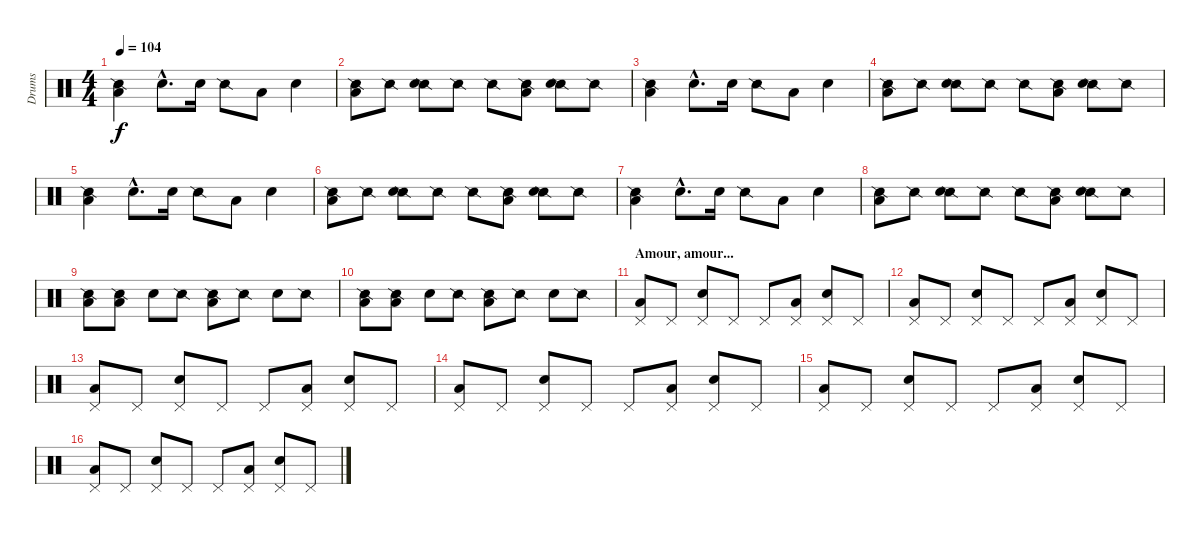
\track ("Drums" "Drums") {instrument percussion}
\staff {score}
\articulation defaults
\ts (4 4)
\tempo 104
\clef neutral
\ks c
("Snare (side stick) 2" "Low Floor Tom (hit)").4{dy f} "Snare (hit) 2"{hac}.8{d} "Snare (hit) 2".16 "Snare (side stick) 2".8 "Low Floor Tom (hit)".8 "Snare (hit) 2".4 |
("Snare (side stick) 2" "Low Floor Tom (hit)").8 "Snare (side stick) 2".8 ("Snare (side stick) 2" "Snare (hit) 2").8 "Snare (side stick) 2".8 "Snare (side stick) 2".8 ("Snare (side stick) 2" "Low Floor Tom (hit)").8 ("Snare (side stick) 2" "Snare (hit) 2").8 "Snare (side stick) 2".8 |
("Snare (side stick) 2" "Low Floor Tom (hit)").4 "Snare (hit) 2"{hac}.8{d} "Snare (hit) 2".16 "Snare (side stick) 2".8 "Low Floor Tom (hit)".8 "Snare (hit) 2".4 |
("Snare (side stick) 2" "Low Floor Tom (hit)").8 "Snare (side stick) 2".8 ("Snare (side stick) 2" "Snare (hit) 2").8 "Snare (side stick) 2".8 "Snare (side stick) 2".8 ("Snare (side stick) 2" "Low Floor Tom (hit)").8 ("Snare (side stick) 2" "Snare (hit) 2").8 "Snare (side stick) 2".8 |
("Snare (side stick) 2" "Low Floor Tom (hit)").4 "Snare (hit) 2"{hac}.8{d} "Snare (hit) 2".16 "Snare (side stick) 2".8 "Low Floor Tom (hit)".8 "Snare (hit) 2".4 |
("Snare (side stick) 2" "Low Floor Tom (hit)").8 "Snare (side stick) 2".8 ("Snare (side stick) 2" "Snare (hit) 2").8 "Snare (side stick) 2".8 "Snare (side stick) 2".8 ("Snare (side stick) 2" "Low Floor Tom (hit)").8 ("Snare (side stick) 2" "Snare (hit) 2").8 "Snare (side stick) 2".8 |
("Snare (side stick) 2" "Low Floor Tom (hit)").4 "Snare (hit) 2"{hac}.8{d} "Snare (hit) 2".16 "Snare (side stick) 2".8 "Low Floor Tom (hit)".8 "Snare (hit) 2".4 |
("Snare (side stick) 2" "Low Floor Tom (hit)").8 "Snare (side stick) 2".8 ("Snare (side stick) 2" "Snare (hit) 2").8 "Snare (side stick) 2".8 "Snare (side stick) 2".8 ("Snare (side stick) 2" "Low Floor Tom (hit)").8 ("Snare (side stick) 2" "Snare (hit) 2").8 "Snare (side stick) 2".8 |
("Snare (side stick) 2" "Low Floor Tom (hit)").8 ("Snare (side stick) 2" "Low Floor Tom (hit)").8 "Snare (hit) 2".8 "Snare (side stick) 2".8 ("Snare (side stick) 2" "Low Floor Tom (hit)").8 "Snare (side stick) 2".8 "Snare (hit) 2".8 "Snare (side stick) 2".8 |
("Snare (side stick) 2" "Low Floor Tom (hit)").8 ("Snare (side stick) 2" "Low Floor Tom (hit)").8 "Snare (hit) 2".8 "Snare (side stick) 2".8 ("Snare (side stick) 2" "Low Floor Tom (hit)").8 "Snare (side stick) 2".8 "Snare (hit) 2".8 "Snare (side stick) 2".8 |
\section ("" "Amour, amour...")
("Pedal Hi-Hat (hit)" "Low Floor Tom (hit)").8 "Pedal Hi-Hat (hit)".8 ("Pedal Hi-Hat (hit)" "Snare (hit) 2").8 "Pedal Hi-Hat (hit)".8 "Pedal Hi-Hat (hit)".8 ("Pedal Hi-Hat (hit)" "Low Floor Tom (hit)").8 ("Pedal Hi-Hat (hit)" "Snare (hit) 2").8 "Pedal Hi-Hat (hit)".8 |
("Pedal Hi-Hat (hit)" "Low Floor Tom (hit)").8 "Pedal Hi-Hat (hit)".8 ("Pedal Hi-Hat (hit)" "Snare (hit) 2").8 "Pedal Hi-Hat (hit)".8 "Pedal Hi-Hat (hit)".8 ("Pedal Hi-Hat (hit)" "Low Floor Tom (hit)").8 ("Pedal Hi-Hat (hit)" "Snare (hit) 2").8 "Pedal Hi-Hat (hit)".8 |
("Pedal Hi-Hat (hit)" "Low Floor Tom (hit)").8 "Pedal Hi-Hat (hit)".8 ("Pedal Hi-Hat (hit)" "Snare (hit) 2").8 "Pedal Hi-Hat (hit)".8 "Pedal Hi-Hat (hit)".8 ("Pedal Hi-Hat (hit)" "Low Floor Tom (hit)").8 ("Pedal Hi-Hat (hit)" "Snare (hit) 2").8 "Pedal Hi-Hat (hit)".8 |
("Pedal Hi-Hat (hit)" "Low Floor Tom (hit)").8 "Pedal Hi-Hat (hit)".8 ("Pedal Hi-Hat (hit)" "Snare (hit) 2").8 "Pedal Hi-Hat (hit)".8 "Pedal Hi-Hat (hit)".8 ("Pedal Hi-Hat (hit)" "Low Floor Tom (hit)").8 ("Pedal Hi-Hat (hit)" "Snare (hit) 2").8 "Pedal Hi-Hat (hit)".8 |
("Pedal Hi-Hat (hit)" "Low Floor Tom (hit)").8 "Pedal Hi-Hat (hit)".8 ("Pedal Hi-Hat (hit)" "Snare (hit) 2").8 "Pedal Hi-Hat (hit)".8 "Pedal Hi-Hat (hit)".8 ("Pedal Hi-Hat (hit)" "Low Floor Tom (hit)").8 ("Pedal Hi-Hat (hit)" "Snare (hit) 2").8 "Pedal Hi-Hat (hit)".8 |
("Pedal Hi-Hat (hit)" "Low Floor Tom (hit)").8 "Pedal Hi-Hat (hit)".8 ("Pedal Hi-Hat (hit)" "Snare (hit) 2").8 "Pedal Hi-Hat (hit)".8 "Pedal Hi-Hat (hit)".8 ("Pedal Hi-Hat (hit)" "Low Floor Tom (hit)").8 ("Pedal Hi-Hat (hit)" "Snare (hit) 2").8 "Pedal Hi-Hat (hit)".8
